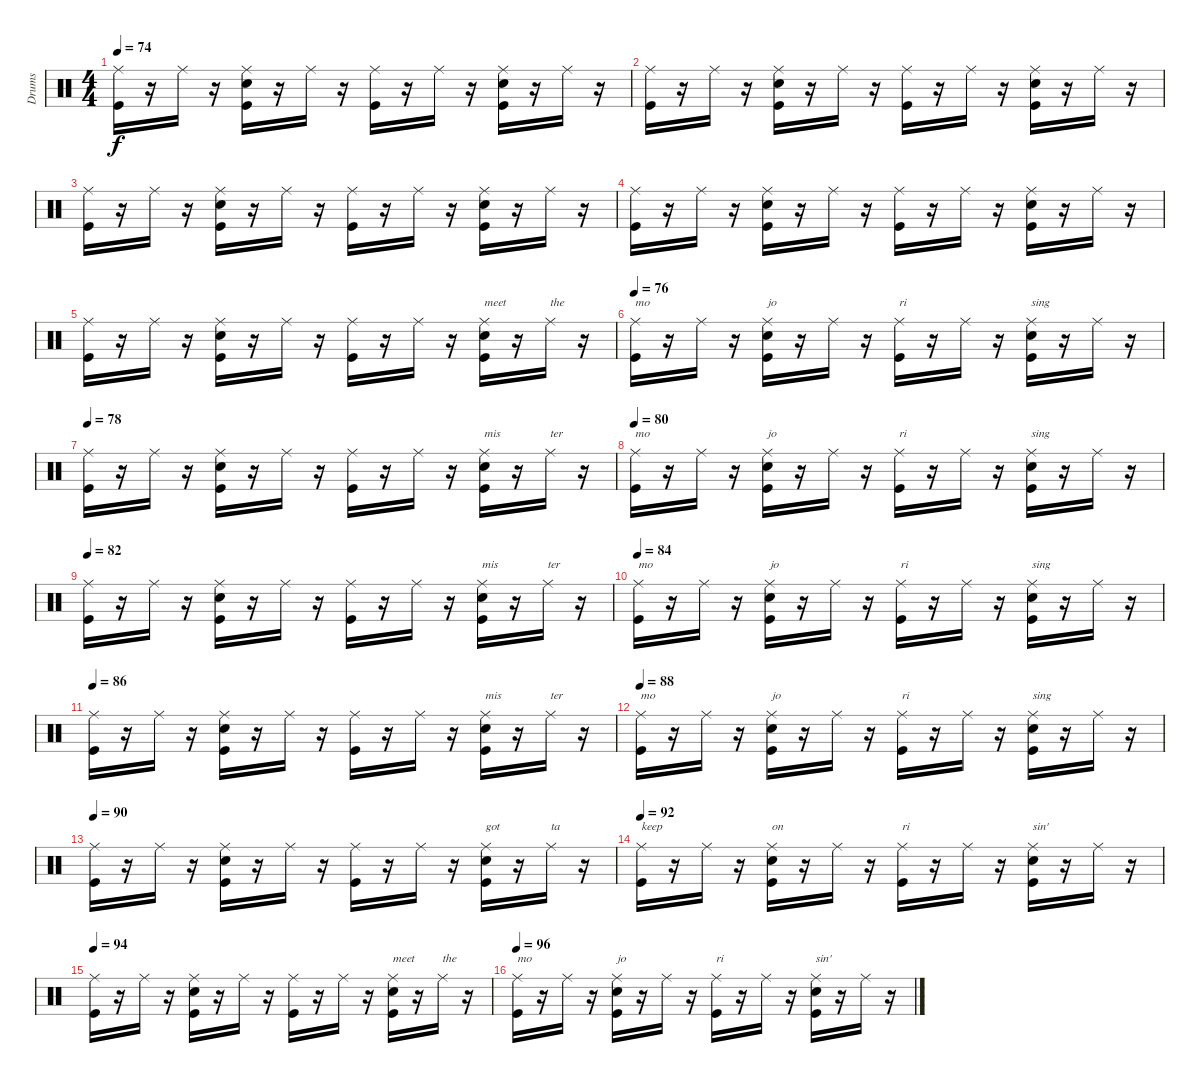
\track ("Drums" "Drums") {instrument percussion}
\staff {score}
\articulation defaults
\ts (4 4)
\tempo 74
\clef neutral
\ks c
("Kick (hit)" "Ride (middle)").16{dy f} r.16 "Ride (middle)".16 r.16 ("Kick (hit)" "Snare (hit) 2" "Ride (middle)").16 r.16 "Ride (middle)".16 r.16 ("Kick (hit)" "Ride (middle)").16 r.16 "Ride (middle)".16 r.16 ("Kick (hit)" "Snare (hit) 2" "Ride (middle)").16 r.16 "Ride (middle)".16 r.16 |
("Kick (hit)" "Ride (middle)").16 r.16 "Ride (middle)".16 r.16 ("Kick (hit)" "Snare (hit) 2" "Ride (middle)").16 r.16 "Ride (middle)".16 r.16 ("Kick (hit)" "Ride (middle)").16 r.16 "Ride (middle)".16 r.16 ("Kick (hit)" "Snare (hit) 2" "Ride (middle)").16 r.16 "Ride (middle)".16 r.16 |
("Kick (hit)" "Ride (middle)").16 r.16 "Ride (middle)".16 r.16 ("Kick (hit)" "Snare (hit) 2" "Ride (middle)").16 r.16 "Ride (middle)".16 r.16 ("Kick (hit)" "Ride (middle)").16 r.16 "Ride (middle)".16 r.16 ("Kick (hit)" "Snare (hit) 2" "Ride (middle)").16 r.16 "Ride (middle)".16 r.16 |
("Kick (hit)" "Ride (middle)").16 r.16 "Ride (middle)".16 r.16 ("Kick (hit)" "Snare (hit) 2" "Ride (middle)").16 r.16 "Ride (middle)".16 r.16 ("Kick (hit)" "Ride (middle)").16 r.16 "Ride (middle)".16 r.16 ("Kick (hit)" "Snare (hit) 2" "Ride (middle)").16 r.16 "Ride (middle)".16 r.16 |
("Kick (hit)" "Ride (middle)").16 r.16 "Ride (middle)".16 r.16 ("Kick (hit)" "Snare (hit) 2" "Ride (middle)").16 r.16 "Ride (middle)".16 r.16 ("Kick (hit)" "Ride (middle)").16 r.16 "Ride (middle)".16 r.16 ("Kick (hit)" "Snare (hit) 2" "Ride (middle)").16{txt "meet"} r.16 "Ride (middle)".16{txt "the"} r.16 |
\tempo 76
("Kick (hit)" "Ride (middle)").16{txt "mo"} r.16 "Ride (middle)".16 r.16 ("Kick (hit)" "Snare (hit) 2" "Ride (middle)").16{txt "jo"} r.16 "Ride (middle)".16 r.16 ("Kick (hit)" "Ride (middle)").16{txt "ri"} r.16 "Ride (middle)".16 r.16 ("Kick (hit)" "Snare (hit) 2" "Ride (middle)").16{txt "sing"} r.16 "Ride (middle)".16 r.16 |
\tempo 78
("Kick (hit)" "Ride (middle)").16 r.16 "Ride (middle)".16 r.16 ("Kick (hit)" "Snare (hit) 2" "Ride (middle)").16 r.16 "Ride (middle)".16 r.16 ("Kick (hit)" "Ride (middle)").16 r.16 "Ride (middle)".16 r.16 ("Kick (hit)" "Snare (hit) 2" "Ride (middle)").16{txt "mis"} r.16 "Ride (middle)".16{txt "ter"} r.16 |
\tempo 80
("Kick (hit)" "Ride (middle)").16{txt "mo"} r.16 "Ride (middle)".16 r.16 ("Kick (hit)" "Snare (hit) 2" "Ride (middle)").16{txt "jo"} r.16 "Ride (middle)".16 r.16 ("Kick (hit)" "Ride (middle)").16{txt "ri"} r.16 "Ride (middle)".16 r.16 ("Kick (hit)" "Snare (hit) 2" "Ride (middle)").16{txt "sing"} r.16 "Ride (middle)".16 r.16 |
\tempo 82
("Kick (hit)" "Ride (middle)").16 r.16 "Ride (middle)".16 r.16 ("Kick (hit)" "Snare (hit) 2" "Ride (middle)").16 r.16 "Ride (middle)".16 r.16 ("Kick (hit)" "Ride (middle)").16 r.16 "Ride (middle)".16 r.16 ("Kick (hit)" "Snare (hit) 2" "Ride (middle)").16{txt "mis"} r.16 "Ride (middle)".16{txt "ter"} r.16 |
\tempo 84
("Kick (hit)" "Ride (middle)").16{txt "mo"} r.16 "Ride (middle)".16 r.16 ("Kick (hit)" "Snare (hit) 2" "Ride (middle)").16{txt "jo"} r.16 "Ride (middle)".16 r.16 ("Kick (hit)" "Ride (middle)").16{txt "ri"} r.16 "Ride (middle)".16 r.16 ("Kick (hit)" "Snare (hit) 2" "Ride (middle)").16{txt "sing"} r.16 "Ride (middle)".16 r.16 |
\tempo 86
("Kick (hit)" "Ride (middle)").16 r.16 "Ride (middle)".16 r.16 ("Kick (hit)" "Snare (hit) 2" "Ride (middle)").16 r.16 "Ride (middle)".16 r.16 ("Kick (hit)" "Ride (middle)").16 r.16 "Ride (middle)".16 r.16 ("Kick (hit)" "Snare (hit) 2" "Ride (middle)").16{txt "mis"} r.16 "Ride (middle)".16{txt "ter"} r.16 |
\tempo 88
("Kick (hit)" "Ride (middle)").16{txt "mo"} r.16 "Ride (middle)".16 r.16 ("Kick (hit)" "Snare (hit) 2" "Ride (middle)").16{txt "jo"} r.16 "Ride (middle)".16 r.16 ("Kick (hit)" "Ride (middle)").16{txt "ri"} r.16 "Ride (middle)".16 r.16 ("Kick (hit)" "Snare (hit) 2" "Ride (middle)").16{txt "sing"} r.16 "Ride (middle)".16 r.16 |
\tempo 90
("Kick (hit)" "Ride (middle)").16 r.16 "Ride (middle)".16 r.16 ("Kick (hit)" "Snare (hit) 2" "Ride (middle)").16 r.16 "Ride (middle)".16 r.16 ("Kick (hit)" "Ride (middle)").16 r.16 "Ride (middle)".16 r.16 ("Kick (hit)" "Snare (hit) 2" "Ride (middle)").16{txt "got"} r.16 "Ride (middle)".16{txt "ta"} r.16 |
\tempo 92
("Kick (hit)" "Ride (middle)").16{txt "keep"} r.16 "Ride (middle)".16 r.16 ("Kick (hit)" "Snare (hit) 2" "Ride (middle)").16{txt "on"} r.16 "Ride (middle)".16 r.16 ("Kick (hit)" "Ride (middle)").16{txt "ri"} r.16 "Ride (middle)".16 r.16 ("Kick (hit)" "Snare (hit) 2" "Ride (middle)").16{txt "sin'"} r.16 "Ride (middle)".16 r.16 |
\tempo 94
("Kick (hit)" "Ride (middle)").16 r.16 "Ride (middle)".16 r.16 ("Kick (hit)" "Snare (hit) 2" "Ride (middle)").16 r.16 "Ride (middle)".16 r.16 ("Kick (hit)" "Ride (middle)").16 r.16 "Ride (middle)".16 r.16 ("Kick (hit)" "Snare (hit) 2" "Ride (middle)").16{txt "meet"} r.16 "Ride (middle)".16{txt "the"} r.16 |
\tempo 96
("Kick (hit)" "Ride (middle)").16{txt "mo"} r.16 "Ride (middle)".16 r.16 ("Kick (hit)" "Snare (hit) 2" "Ride (middle)").16{txt "jo"} r.16 "Ride (middle)".16 r.16 ("Kick (hit)" "Ride (middle)").16{txt "ri"} r.16 "Ride (middle)".16 r.16 ("Kick (hit)" "Snare (hit) 2" "Ride (middle)").16{txt "sin'"} r.16 "Ride (middle)".16 r.16
